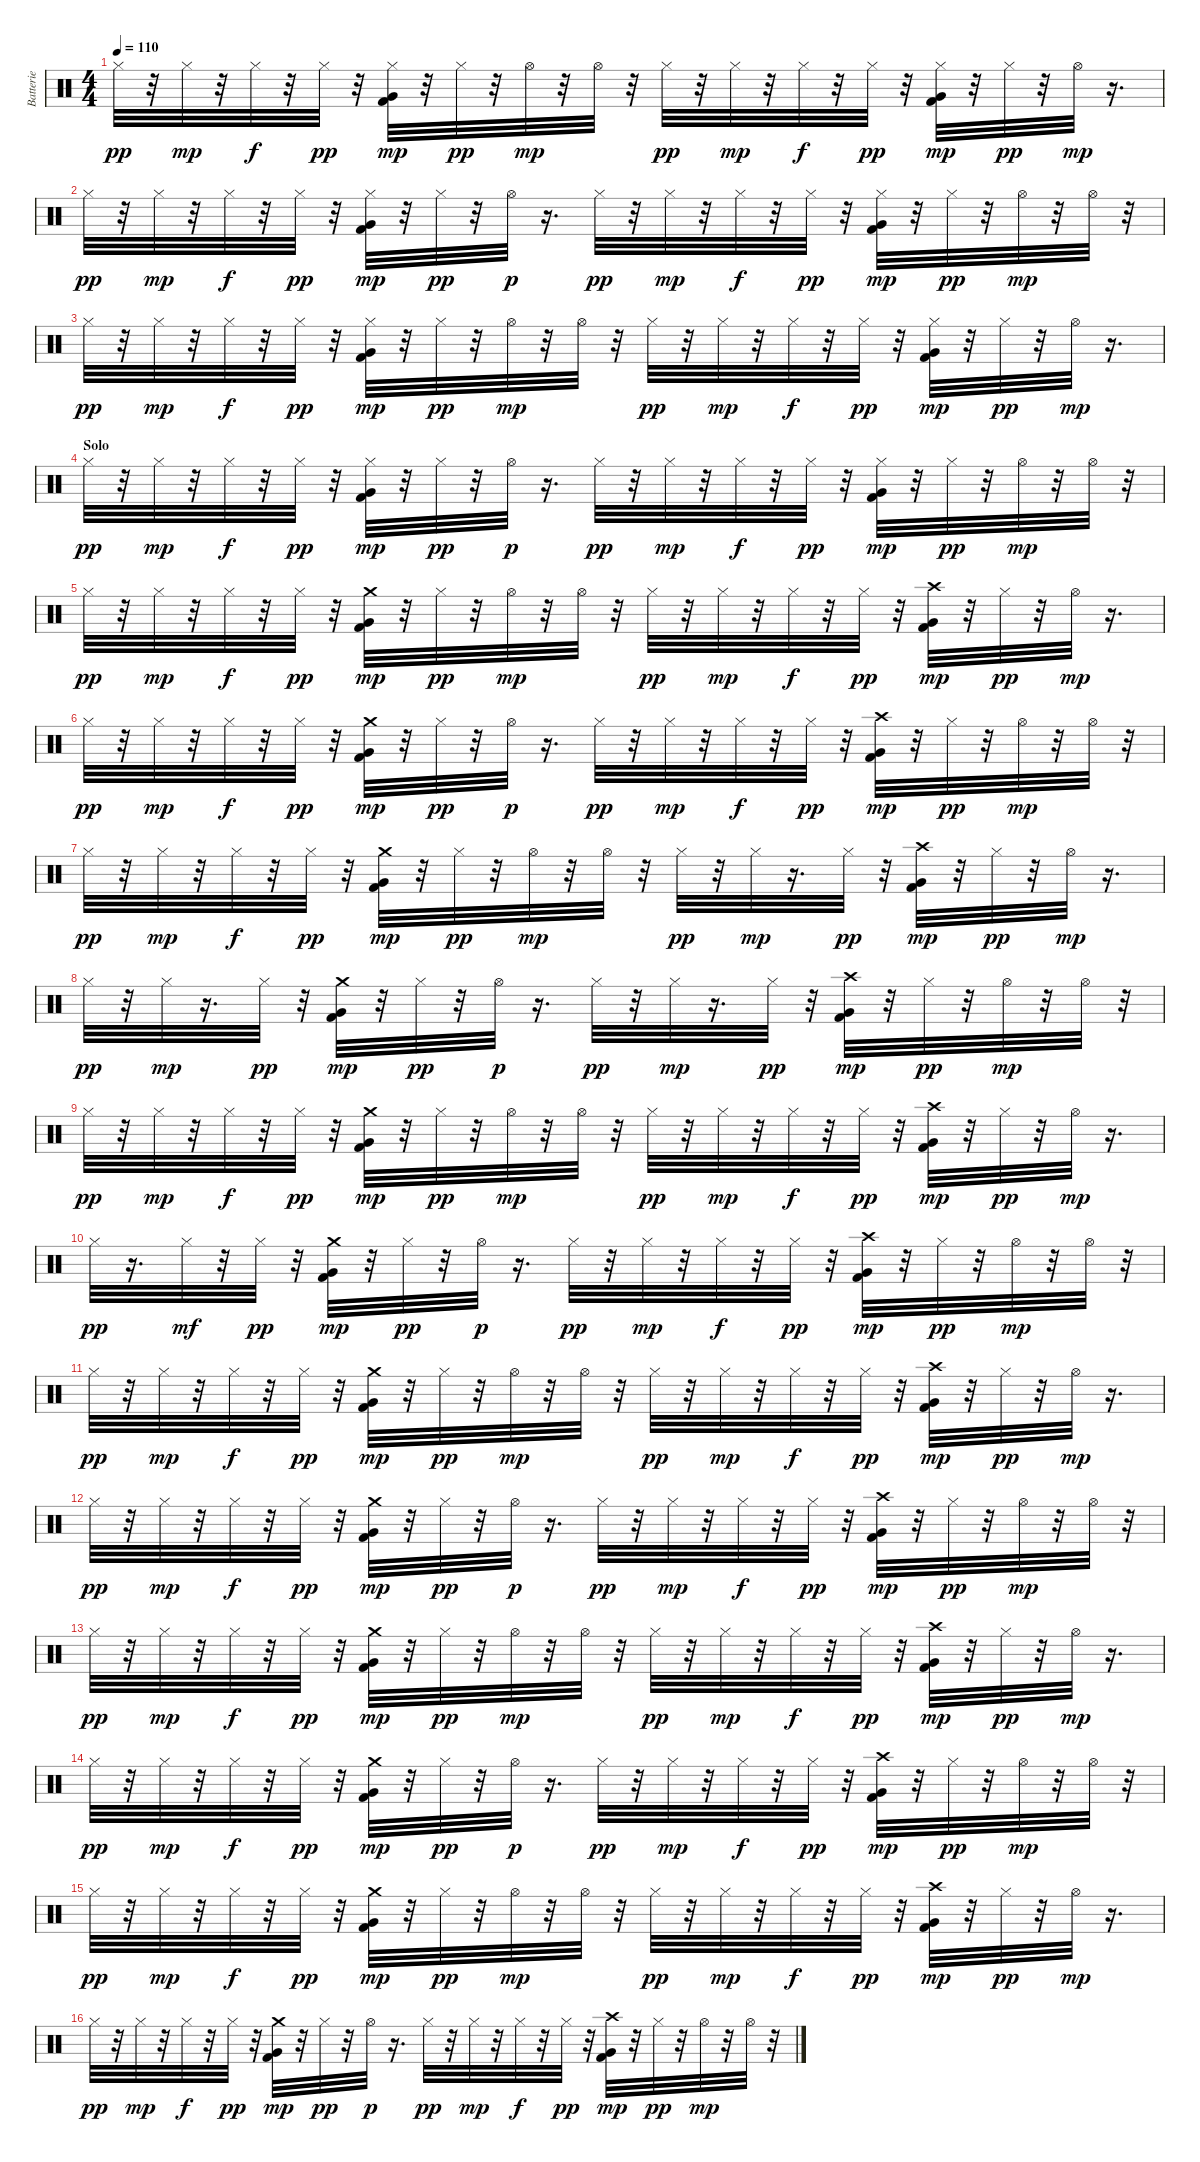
\track ("Batterie" "Batterie") {instrument percussion}
\staff {score}
\articulation defaults
\ts (4 4)
\tempo 110
\clef neutral
\ks c "Hi-Hat (closed)".32{dy pp}
r.32 "Hi-Hat (closed)".32{dy mp} r.32 "Hi-Hat (closed)".32{dy f} r.32 "Hi-Hat (closed)".32{dy pp} r.32 ("Kick (hit) 2" "Hi-Hat (closed)" "Very Low Tom (hit)").32{dy mp} r.32 "Hi-Hat (closed)".32{dy pp} r.32 "Hi-Hat (open)".32{dy mp} r.32 "Hi-Hat (open)".32 r.32 "Hi-Hat (closed)".32{dy pp} r.32 "Hi-Hat (closed)".32{dy mp} r.32 "Hi-Hat (closed)".32{dy f} r.32 "Hi-Hat (closed)".32{dy pp} r.32 ("Kick (hit) 2" "Hi-Hat (closed)" "Very Low Tom (hit)").32{dy mp} r.32 "Hi-Hat (closed)".32{dy pp} r.32 "Hi-Hat (open)".32{dy mp} r.16{d} |
"Hi-Hat (closed)".32{dy pp} r.32 "Hi-Hat (closed)".32{dy mp} r.32 "Hi-Hat (closed)".32{dy f} r.32 "Hi-Hat (closed)".32{dy pp} r.32 ("Kick (hit) 2" "Hi-Hat (closed)" "Very Low Tom (hit)").32{dy mp} r.32 "Hi-Hat (closed)".32{dy pp} r.32 "Hi-Hat (open)".32{dy p} r.16{d} "Hi-Hat (closed)".32{dy pp} r.32 "Hi-Hat (closed)".32{dy mp} r.32 "Hi-Hat (closed)".32{dy f} r.32 "Hi-Hat (closed)".32{dy pp} r.32 ("Kick (hit) 2" "Hi-Hat (closed)" "Very Low Tom (hit)").32{dy mp} r.32 "Hi-Hat (closed)".32{dy pp} r.32 "Hi-Hat (open)".32{dy mp} r.32 "Hi-Hat (open)".32 r.32 |
"Hi-Hat (closed)".32{dy pp} r.32 "Hi-Hat (closed)".32{dy mp} r.32 "Hi-Hat (closed)".32{dy f} r.32 "Hi-Hat (closed)".32{dy pp} r.32 ("Kick (hit) 2" "Hi-Hat (closed)" "Very Low Tom (hit)").32{dy mp} r.32 "Hi-Hat (closed)".32{dy pp} r.32 "Hi-Hat (open)".32{dy mp} r.32 "Hi-Hat (open)".32 r.32 "Hi-Hat (closed)".32{dy pp} r.32 "Hi-Hat (closed)".32{dy mp} r.32 "Hi-Hat (closed)".32{dy f} r.32 "Hi-Hat (closed)".32{dy pp} r.32 ("Kick (hit) 2" "Hi-Hat (closed)" "Very Low Tom (hit)").32{dy mp} r.32 "Hi-Hat (closed)".32{dy pp} r.32 "Hi-Hat (open)".32{dy mp} r.16{d} |
\section ("" "Solo")
"Hi-Hat (closed)".32{dy pp} r.32 "Hi-Hat (closed)".32{dy mp} r.32 "Hi-Hat (closed)".32{dy f} r.32 "Hi-Hat (closed)".32{dy pp} r.32 ("Kick (hit) 2" "Hi-Hat (closed)" "Very Low Tom (hit)").32{dy mp} r.32 "Hi-Hat (closed)".32{dy pp} r.32 "Hi-Hat (open)".32{dy p} r.16{d} "Hi-Hat (closed)".32{dy pp} r.32 "Hi-Hat (closed)".32{dy mp} r.32 "Hi-Hat (closed)".32{dy f} r.32 "Hi-Hat (closed)".32{dy pp} r.32 ("Kick (hit) 2" "Hi-Hat (closed)" "Very Low Tom (hit)").32{dy mp} r.32 "Hi-Hat (closed)".32{dy pp} r.32 "Hi-Hat (open)".32{dy mp} r.32 "Hi-Hat (open)".32 r.32 |
"Hi-Hat (closed)".32{dy pp} r.32 "Hi-Hat (closed)".32{dy mp} r.32 "Hi-Hat (closed)".32{dy f} r.32 "Hi-Hat (closed)".32{dy pp} r.32 ("Kick (hit) 2" "Very Low Tom (hit)" "Crash medium (hit)").32{dy mp} r.32 "Hi-Hat (closed)".32{dy pp} r.32 "Hi-Hat (open)".32{dy mp} r.32 "Hi-Hat (open)".32 r.32 "Hi-Hat (closed)".32{dy pp} r.32 "Hi-Hat (closed)".32{dy mp} r.32 "Hi-Hat (closed)".32{dy f} r.32 "Hi-Hat (closed)".32{dy pp} r.32 ("Kick (hit) 2" "Very Low Tom (hit)" "Crash high (hit)").32{dy mp} r.32 "Hi-Hat (closed)".32{dy pp} r.32 "Hi-Hat (open)".32{dy mp} r.16{d} |
"Hi-Hat (closed)".32{dy pp} r.32 "Hi-Hat (closed)".32{dy mp} r.32 "Hi-Hat (closed)".32{dy f} r.32 "Hi-Hat (closed)".32{dy pp} r.32 ("Kick (hit) 2" "Very Low Tom (hit)" "Crash medium (hit)").32{dy mp} r.32 "Hi-Hat (closed)".32{dy pp} r.32 "Hi-Hat (open)".32{dy p} r.16{d} "Hi-Hat (closed)".32{dy pp} r.32 "Hi-Hat (closed)".32{dy mp} r.32 "Hi-Hat (closed)".32{dy f} r.32 "Hi-Hat (closed)".32{dy pp} r.32 ("Kick (hit) 2" "Very Low Tom (hit)" "Crash high (hit)").32{dy mp} r.32 "Hi-Hat (closed)".32{dy pp} r.32 "Hi-Hat (open)".32{dy mp} r.32 "Hi-Hat (open)".32 r.32 |
"Hi-Hat (closed)".32{dy pp} r.32 "Hi-Hat (closed)".32{dy mp} r.32 "Hi-Hat (closed)".32{dy f} r.32 "Hi-Hat (closed)".32{dy pp} r.32 ("Kick (hit) 2" "Very Low Tom (hit)" "Crash medium (hit)").32{dy mp} r.32 "Hi-Hat (closed)".32{dy pp} r.32 "Hi-Hat (open)".32{dy mp} r.32 "Hi-Hat (open)".32 r.32 "Hi-Hat (closed)".32{dy pp} r.32 "Hi-Hat (closed)".32{dy mp} r.16{d} "Hi-Hat (closed)".32{dy pp} r.32 ("Kick (hit) 2" "Very Low Tom (hit)" "Crash high (hit)").32{dy mp} r.32 "Hi-Hat (closed)".32{dy pp} r.32 "Hi-Hat (open)".32{dy mp} r.16{d} |
"Hi-Hat (closed)".32{dy pp} r.32 "Hi-Hat (closed)".32{dy mp} r.16{d} "Hi-Hat (closed)".32{dy pp} r.32 ("Kick (hit) 2" "Very Low Tom (hit)" "Crash medium (hit)").32{dy mp} r.32 "Hi-Hat (closed)".32{dy pp} r.32 "Hi-Hat (open)".32{dy p} r.16{d} "Hi-Hat (closed)".32{dy pp} r.32 "Hi-Hat (closed)".32{dy mp} r.16{d} "Hi-Hat (closed)".32{dy pp} r.32 ("Kick (hit) 2" "Very Low Tom (hit)" "Crash high (hit)").32{dy mp} r.32 "Hi-Hat (closed)".32{dy pp} r.32 "Hi-Hat (open)".32{dy mp} r.32 "Hi-Hat (open)".32 r.32 |
"Hi-Hat (closed)".32{dy pp} r.32 "Hi-Hat (closed)".32{dy mp} r.32 "Hi-Hat (closed)".32{dy f} r.32 "Hi-Hat (closed)".32{dy pp} r.32 ("Kick (hit) 2" "Very Low Tom (hit)" "Crash medium (hit)").32{dy mp} r.32 "Hi-Hat (closed)".32{dy pp} r.32 "Hi-Hat (open)".32{dy mp} r.32 "Hi-Hat (open)".32 r.32 "Hi-Hat (closed)".32{dy pp} r.32 "Hi-Hat (closed)".32{dy mp} r.32 "Hi-Hat (closed)".32{dy f} r.32 "Hi-Hat (closed)".32{dy pp} r.32 ("Kick (hit) 2" "Very Low Tom (hit)" "Crash high (hit)").32{dy mp} r.32 "Hi-Hat (closed)".32{dy pp} r.32 "Hi-Hat (open)".32{dy mp} r.16{d} |
"Hi-Hat (closed)".32{dy pp} r.16{d} "Hi-Hat (closed)".32{dy mf} r.32 "Hi-Hat (closed)".32{dy pp} r.32 ("Kick (hit) 2" "Very Low Tom (hit)" "Crash medium (hit)").32{dy mp} r.32 "Hi-Hat (closed)".32{dy pp} r.32 "Hi-Hat (open)".32{dy p} r.16{d} "Hi-Hat (closed)".32{dy pp} r.32 "Hi-Hat (closed)".32{dy mp} r.32 "Hi-Hat (closed)".32{dy f} r.32 "Hi-Hat (closed)".32{dy pp} r.32 ("Kick (hit) 2" "Very Low Tom (hit)" "Crash high (hit)").32{dy mp} r.32 "Hi-Hat (closed)".32{dy pp} r.32 "Hi-Hat (open)".32{dy mp} r.32 "Hi-Hat (open)".32 r.32 |
"Hi-Hat (closed)".32{dy pp} r.32 "Hi-Hat (closed)".32{dy mp} r.32 "Hi-Hat (closed)".32{dy f} r.32 "Hi-Hat (closed)".32{dy pp} r.32 ("Kick (hit) 2" "Very Low Tom (hit)" "Crash medium (hit)").32{dy mp} r.32 "Hi-Hat (closed)".32{dy pp} r.32 "Hi-Hat (open)".32{dy mp} r.32 "Hi-Hat (open)".32 r.32 "Hi-Hat (closed)".32{dy pp} r.32 "Hi-Hat (closed)".32{dy mp} r.32 "Hi-Hat (closed)".32{dy f} r.32 "Hi-Hat (closed)".32{dy pp} r.32 ("Kick (hit) 2" "Very Low Tom (hit)" "Crash high (hit)").32{dy mp} r.32 "Hi-Hat (closed)".32{dy pp} r.32 "Hi-Hat (open)".32{dy mp} r.16{d} |
"Hi-Hat (closed)".32{dy pp} r.32 "Hi-Hat (closed)".32{dy mp} r.32 "Hi-Hat (closed)".32{dy f} r.32 "Hi-Hat (closed)".32{dy pp} r.32 ("Kick (hit) 2" "Very Low Tom (hit)" "Crash medium (hit)").32{dy mp} r.32 "Hi-Hat (closed)".32{dy pp} r.32 "Hi-Hat (open)".32{dy p} r.16{d} "Hi-Hat (closed)".32{dy pp} r.32 "Hi-Hat (closed)".32{dy mp} r.32 "Hi-Hat (closed)".32{dy f} r.32 "Hi-Hat (closed)".32{dy pp} r.32 ("Kick (hit) 2" "Very Low Tom (hit)" "Crash high (hit)").32{dy mp} r.32 "Hi-Hat (closed)".32{dy pp} r.32 "Hi-Hat (open)".32{dy mp} r.32 "Hi-Hat (open)".32 r.32 |
"Hi-Hat (closed)".32{dy pp} r.32 "Hi-Hat (closed)".32{dy mp} r.32 "Hi-Hat (closed)".32{dy f} r.32 "Hi-Hat (closed)".32{dy pp} r.32 ("Kick (hit) 2" "Very Low Tom (hit)" "Crash medium (hit)").32{dy mp} r.32 "Hi-Hat (closed)".32{dy pp} r.32 "Hi-Hat (open)".32{dy mp} r.32 "Hi-Hat (open)".32 r.32 "Hi-Hat (closed)".32{dy pp} r.32 "Hi-Hat (closed)".32{dy mp} r.32 "Hi-Hat (closed)".32{dy f} r.32 "Hi-Hat (closed)".32{dy pp} r.32 ("Kick (hit) 2" "Very Low Tom (hit)" "Crash high (hit)").32{dy mp} r.32 "Hi-Hat (closed)".32{dy pp} r.32 "Hi-Hat (open)".32{dy mp} r.16{d} |
"Hi-Hat (closed)".32{dy pp} r.32 "Hi-Hat (closed)".32{dy mp} r.32 "Hi-Hat (closed)".32{dy f} r.32 "Hi-Hat (closed)".32{dy pp} r.32 ("Kick (hit) 2" "Very Low Tom (hit)" "Crash medium (hit)").32{dy mp} r.32 "Hi-Hat (closed)".32{dy pp} r.32 "Hi-Hat (open)".32{dy p} r.16{d} "Hi-Hat (closed)".32{dy pp} r.32 "Hi-Hat (closed)".32{dy mp} r.32 "Hi-Hat (closed)".32{dy f} r.32 "Hi-Hat (closed)".32{dy pp} r.32 ("Kick (hit) 2" "Very Low Tom (hit)" "Crash high (hit)").32{dy mp} r.32 "Hi-Hat (closed)".32{dy pp} r.32 "Hi-Hat (open)".32{dy mp} r.32 "Hi-Hat (open)".32 r.32 |
"Hi-Hat (closed)".32{dy pp} r.32 "Hi-Hat (closed)".32{dy mp} r.32 "Hi-Hat (closed)".32{dy f} r.32 "Hi-Hat (closed)".32{dy pp} r.32 ("Kick (hit) 2" "Very Low Tom (hit)" "Crash medium (hit)").32{dy mp} r.32 "Hi-Hat (closed)".32{dy pp} r.32 "Hi-Hat (open)".32{dy mp} r.32 "Hi-Hat (open)".32 r.32 "Hi-Hat (closed)".32{dy pp} r.32 "Hi-Hat (closed)".32{dy mp} r.32 "Hi-Hat (closed)".32{dy f} r.32 "Hi-Hat (closed)".32{dy pp} r.32 ("Kick (hit) 2" "Very Low Tom (hit)" "Crash high (hit)").32{dy mp} r.32 "Hi-Hat (closed)".32{dy pp} r.32 "Hi-Hat (open)".32{dy mp} r.16{d} |
"Hi-Hat (closed)".32{dy pp} r.32 "Hi-Hat (closed)".32{dy mp} r.32 "Hi-Hat (closed)".32{dy f} r.32 "Hi-Hat (closed)".32{dy pp} r.32 ("Kick (hit) 2" "Very Low Tom (hit)" "Crash medium (hit)").32{dy mp} r.32 "Hi-Hat (closed)".32{dy pp} r.32 "Hi-Hat (open)".32{dy p} r.16{d} "Hi-Hat (closed)".32{dy pp} r.32 "Hi-Hat (closed)".32{dy mp} r.32 "Hi-Hat (closed)".32{dy f} r.32 "Hi-Hat (closed)".32{dy pp} r.32 ("Kick (hit) 2" "Very Low Tom (hit)" "Crash high (hit)").32{dy mp} r.32 "Hi-Hat (closed)".32{dy pp} r.32 "Hi-Hat (open)".32{dy mp} r.32 "Hi-Hat (open)".32 r.32
